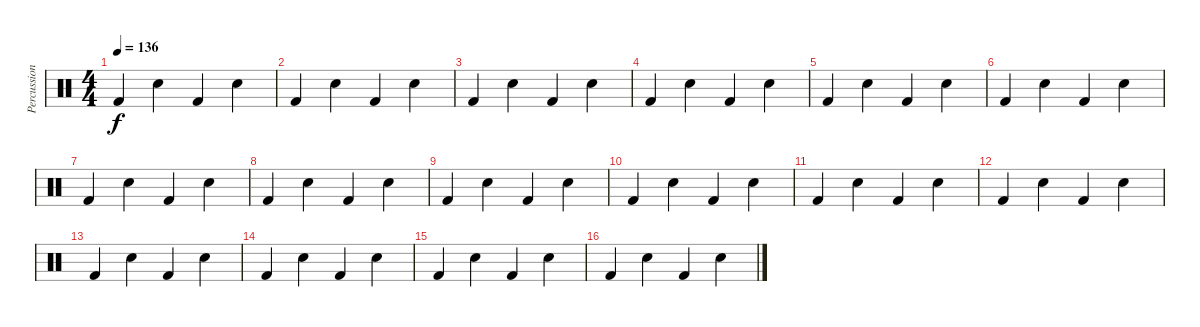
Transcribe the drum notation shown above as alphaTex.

\track ("Percussion" "Percussion") {instrument percussion}
\staff {score}
\articulation defaults
\ts (4 4)
\tempo 136
\clef neutral
\ks c "Kick (hit) 2".4{dy f} "Snare (hit) 2".4 "Kick (hit) 2".4 "Snare (hit) 2".4
|
"Kick (hit) 2".4 "Snare (hit) 2".4 "Kick (hit) 2".4 "Snare (hit) 2".4 |
"Kick (hit) 2".4 "Snare (hit) 2".4 "Kick (hit) 2".4 "Snare (hit) 2".4 |
"Kick (hit) 2".4 "Snare (hit) 2".4 "Kick (hit) 2".4 "Snare (hit) 2".4 |
"Kick (hit) 2".4 "Snare (hit) 2".4 "Kick (hit) 2".4 "Snare (hit) 2".4 |
"Kick (hit) 2".4 "Snare (hit) 2".4 "Kick (hit) 2".4 "Snare (hit) 2".4 |
"Kick (hit) 2".4 "Snare (hit) 2".4 "Kick (hit) 2".4 "Snare (hit) 2".4 |
"Kick (hit) 2".4 "Snare (hit) 2".4 "Kick (hit) 2".4 "Snare (hit) 2".4 |
"Kick (hit) 2".4 "Snare (hit) 2".4 "Kick (hit) 2".4 "Snare (hit) 2".4 |
"Kick (hit) 2".4 "Snare (hit) 2".4 "Kick (hit) 2".4 "Snare (hit) 2".4 |
"Kick (hit) 2".4 "Snare (hit) 2".4 "Kick (hit) 2".4 "Snare (hit) 2".4 |
"Kick (hit) 2".4 "Snare (hit) 2".4 "Kick (hit) 2".4 "Snare (hit) 2".4 |
"Kick (hit) 2".4 "Snare (hit) 2".4 "Kick (hit) 2".4 "Snare (hit) 2".4 |
"Kick (hit) 2".4 "Snare (hit) 2".4 "Kick (hit) 2".4 "Snare (hit) 2".4 |
"Kick (hit) 2".4 "Snare (hit) 2".4 "Kick (hit) 2".4 "Snare (hit) 2".4 |
"Kick (hit) 2".4 "Snare (hit) 2".4 "Kick (hit) 2".4 "Snare (hit) 2".4
